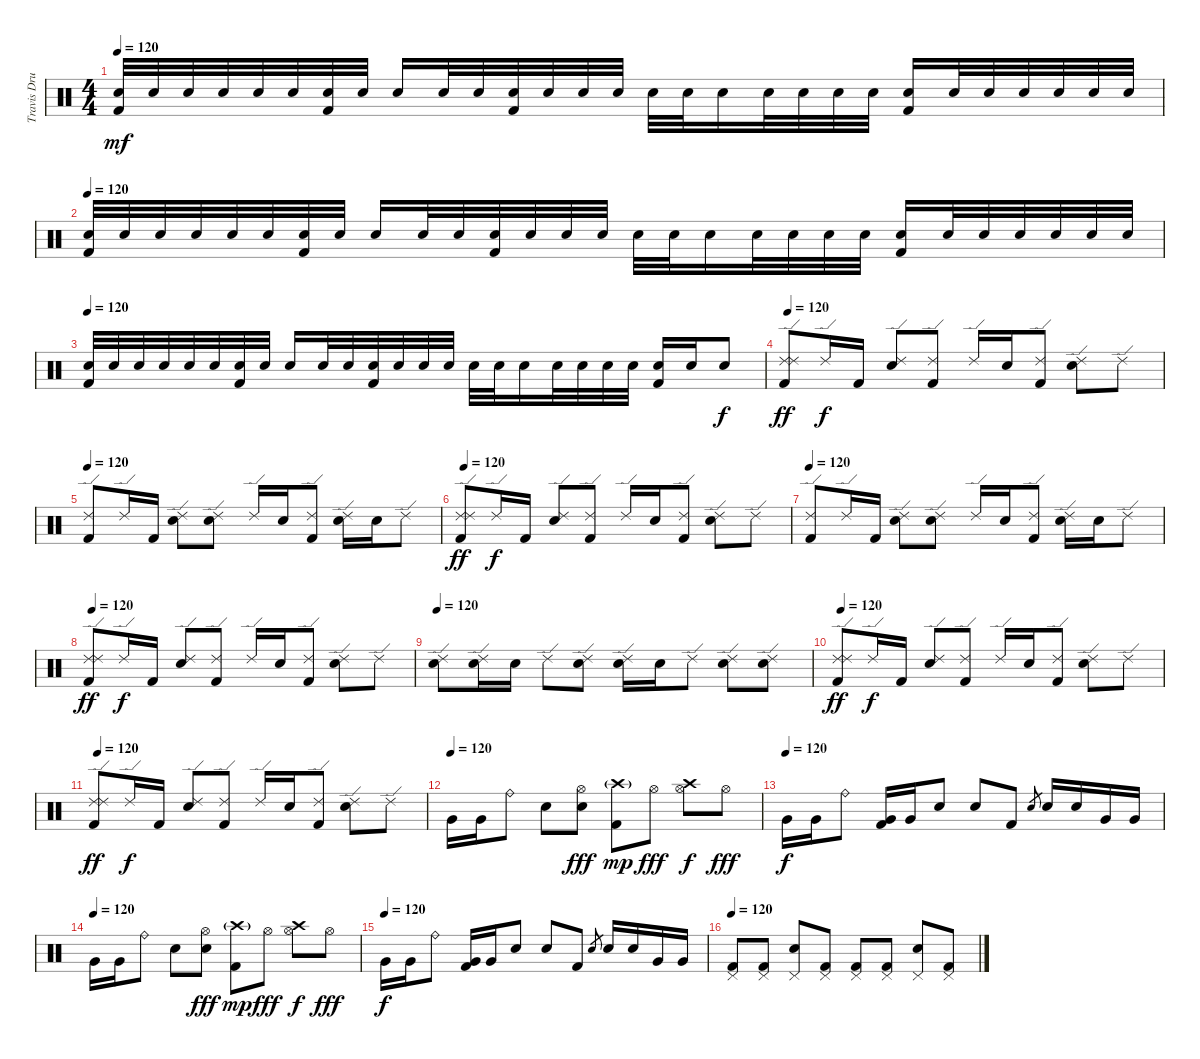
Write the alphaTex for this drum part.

\track ("Travis Drums" "Travis Dru") {instrument percussion}
\staff {score}
\articulation defaults
\ts (4 4)
\tempo 120
\clef neutral
\ks c
("Electric Snare (hit)" "Kick (hit) 2").32{dy mf} "Electric Snare (hit)".32 "Electric Snare (hit)".32 "Electric Snare (hit)".32 "Electric Snare (hit)".32 "Electric Snare (hit)".32 ("Electric Snare (hit)" "Kick (hit) 2").32 "Electric Snare (hit)".32 "Electric Snare (hit)".16 "Electric Snare (hit)".32 "Electric Snare (hit)".32 ("Electric Snare (hit)" "Kick (hit) 2").32 "Electric Snare (hit)".32 "Electric Snare (hit)".32 "Electric Snare (hit)".32 "Electric Snare (hit)".32 "Electric Snare (hit)".32 "Electric Snare (hit)".16 "Electric Snare (hit)".32 "Electric Snare (hit)".32 "Electric Snare (hit)".32 "Electric Snare (hit)".32 ("Electric Snare (hit)" "Kick (hit) 2").16 "Electric Snare (hit)".32 "Electric Snare (hit)".32 "Electric Snare (hit)".32 "Electric Snare (hit)".32 "Electric Snare (hit)".32 "Electric Snare (hit)".32 |
\tempo 120
("Electric Snare (hit)" "Kick (hit) 2").32 "Electric Snare (hit)".32 "Electric Snare (hit)".32 "Electric Snare (hit)".32 "Electric Snare (hit)".32 "Electric Snare (hit)".32 ("Electric Snare (hit)" "Kick (hit) 2").32 "Electric Snare (hit)".32 "Electric Snare (hit)".16 "Electric Snare (hit)".32 "Electric Snare (hit)".32 ("Electric Snare (hit)" "Kick (hit) 2").32 "Electric Snare (hit)".32 "Electric Snare (hit)".32 "Electric Snare (hit)".32 "Electric Snare (hit)".32 "Electric Snare (hit)".32 "Electric Snare (hit)".16 "Electric Snare (hit)".32 "Electric Snare (hit)".32 "Electric Snare (hit)".32 "Electric Snare (hit)".32 ("Electric Snare (hit)" "Kick (hit) 2").16 "Electric Snare (hit)".32 "Electric Snare (hit)".32 "Electric Snare (hit)".32 "Electric Snare (hit)".32 "Electric Snare (hit)".32 "Electric Snare (hit)".32 |
\tempo 120
("Electric Snare (hit)" "Kick (hit) 2").32 "Electric Snare (hit)".32 "Electric Snare (hit)".32 "Electric Snare (hit)".32 "Electric Snare (hit)".32 "Electric Snare (hit)".32 ("Electric Snare (hit)" "Kick (hit) 2").32 "Electric Snare (hit)".32 "Electric Snare (hit)".16 "Electric Snare (hit)".32 "Electric Snare (hit)".32 ("Electric Snare (hit)" "Kick (hit) 2").32 "Electric Snare (hit)".32 "Electric Snare (hit)".32 "Electric Snare (hit)".32 "Electric Snare (hit)".32 "Electric Snare (hit)".32 "Electric Snare (hit)".16 "Electric Snare (hit)".32 "Electric Snare (hit)".32 "Electric Snare (hit)".32 "Electric Snare (hit)".32 ("Electric Snare (hit)" "Kick (hit) 2").16 "Electric Snare (hit)".16 "Electric Snare (hit)".8{dy f} |
\tempo 120
("Ride (edge) 2" "Ride (edge) 2" "Kick (hit) 2").8{dy ff} "Ride (edge) 2".16{dy f} "Kick (hit) 2".16 ("Ride (edge) 2" "Electric Snare (hit)").8 ("Ride (edge) 2" "Kick (hit) 2").8 "Ride (edge) 2".16 "Electric Snare (hit)".16 ("Ride (edge) 2" "Kick (hit) 2").8 ("Ride (edge) 2" "Electric Snare (hit)").8 "Ride (edge) 2".8 |
\tempo 120
("Ride (edge) 2" "Kick (hit) 2").8 "Ride (edge) 2".16 "Kick (hit) 2".16 ("Ride (edge) 2" "Electric Snare (hit)").8 ("Ride (edge) 2" "Electric Snare (hit)").8 "Ride (edge) 2".16 "Electric Snare (hit)".16 ("Ride (edge) 2" "Kick (hit) 2").8 ("Ride (edge) 2" "Electric Snare (hit)").16 "Electric Snare (hit)".16 "Ride (edge) 2".8 |
\tempo 120
("Ride (edge) 2" "Ride (edge) 2" "Kick (hit) 2").8{dy ff} "Ride (edge) 2".16{dy f} "Kick (hit) 2".16 ("Ride (edge) 2" "Electric Snare (hit)").8 ("Ride (edge) 2" "Kick (hit) 2").8 "Ride (edge) 2".16 "Electric Snare (hit)".16 ("Ride (edge) 2" "Kick (hit) 2").8 ("Ride (edge) 2" "Electric Snare (hit)").8 "Ride (edge) 2".8 |
\tempo 120
("Ride (edge) 2" "Kick (hit) 2").8 "Ride (edge) 2".16 "Kick (hit) 2".16 ("Ride (edge) 2" "Electric Snare (hit)").8 ("Ride (edge) 2" "Electric Snare (hit)").8 "Ride (edge) 2".16 "Electric Snare (hit)".16 ("Ride (edge) 2" "Kick (hit) 2").8 ("Ride (edge) 2" "Electric Snare (hit)").16 "Electric Snare (hit)".16 "Ride (edge) 2".8 |
\tempo 120
("Ride (edge) 2" "Ride (edge) 2" "Kick (hit) 2").8{dy ff} "Ride (edge) 2".16{dy f} "Kick (hit) 2".16 ("Ride (edge) 2" "Electric Snare (hit)").8 ("Ride (edge) 2" "Kick (hit) 2").8 "Ride (edge) 2".16 "Electric Snare (hit)".16 ("Ride (edge) 2" "Kick (hit) 2").8 ("Ride (edge) 2" "Electric Snare (hit)").8 "Ride (edge) 2".8 |
\tempo 120
("Ride (edge) 2" "Electric Snare (hit)").8 ("Ride (edge) 2" "Electric Snare (hit)").16 "Electric Snare (hit)".16 "Ride (edge) 2".8 ("Ride (edge) 2" "Electric Snare (hit)").8 ("Ride (edge) 2" "Electric Snare (hit)").16 "Electric Snare (hit)".16 "Ride (edge) 2".8 ("Ride (edge) 2" "Electric Snare (hit)").8 ("Ride (edge) 2" "Electric Snare (hit)").8 |
\tempo 120
("Ride (edge) 2" "Ride (edge) 2" "Kick (hit) 2").8{dy ff} "Ride (edge) 2".16{dy f} "Kick (hit) 2".16 ("Ride (edge) 2" "Electric Snare (hit)").8 ("Ride (edge) 2" "Kick (hit) 2").8 "Ride (edge) 2".16 "Electric Snare (hit)".16 ("Ride (edge) 2" "Kick (hit) 2").8 ("Ride (edge) 2" "Electric Snare (hit)").8 "Ride (edge) 2".8 |
\tempo 120
("Ride (edge) 2" "Ride (edge) 2" "Kick (hit) 2").8{dy ff} "Ride (edge) 2".16{dy f} "Kick (hit) 2".16 ("Ride (edge) 2" "Electric Snare (hit)").8 ("Ride (edge) 2" "Kick (hit) 2").8 "Ride (edge) 2".16 "Electric Snare (hit)".16 ("Ride (edge) 2" "Kick (hit) 2").8 ("Ride (edge) 2" "Electric Snare (hit)").8 "Ride (edge) 2".8 |
\tempo (120)
"Very Low Tom (hit)".16 "Very Low Tom (hit)".16 "Ride (bell)".8 "Electric Snare (hit)".8 ("Hi-Hat (open)" "Electric Snare (hit)").8{dy fff} ("Crash high (hit)"{g} "Kick (hit) 2").8{dy mp} "Hi-Hat (open)".8{dy fff} ("Crash high (hit)" "Hi-Hat (open)").8{dy f} "Hi-Hat (open)".8{dy fff} |
\tempo (120)
"Very Low Tom (hit)".16{dy f} "Very Low Tom (hit)".16 "Ride (bell)".8 ("Very Low Tom (hit)" "Kick (hit) 2").16 "Very Low Tom (hit)".16 "Electric Snare (hit)".8 "Electric Snare (hit)".8 "Kick (hit) 2".8 "Electric Snare (hit)".8{gr} "Electric Snare (hit)".16 "Electric Snare (hit)".16 "Very Low Tom (hit)".16 "Very Low Tom (hit)".16 |
\tempo (120)
"Very Low Tom (hit)".16 "Very Low Tom (hit)".16 "Ride (bell)".8 "Electric Snare (hit)".8 ("Hi-Hat (open)" "Electric Snare (hit)").8{dy fff} ("Crash high (hit)"{g} "Kick (hit) 2").8{dy mp} "Hi-Hat (open)".8{dy fff} ("Crash high (hit)" "Hi-Hat (open)").8{dy f} "Hi-Hat (open)".8{dy fff} |
\tempo (120)
"Very Low Tom (hit)".16{dy f} "Very Low Tom (hit)".16 "Ride (bell)".8 ("Very Low Tom (hit)" "Kick (hit) 2").16 "Very Low Tom (hit)".16 "Electric Snare (hit)".8 "Electric Snare (hit)".8 "Kick (hit) 2".8 "Electric Snare (hit)".8{gr} "Electric Snare (hit)".16 "Electric Snare (hit)".16 "Very Low Tom (hit)".16 "Very Low Tom (hit)".16 |
\tempo 120
("Pedal Hi-Hat (hit)" "Kick (hit) 2").8 ("Pedal Hi-Hat (hit)" "Kick (hit) 2").8 ("Pedal Hi-Hat (hit)" "Electric Snare (hit)").8 ("Pedal Hi-Hat (hit)" "Kick (hit) 2").8 ("Pedal Hi-Hat (hit)" "Kick (hit) 2").8 ("Pedal Hi-Hat (hit)" "Kick (hit) 2").8 ("Pedal Hi-Hat (hit)" "Electric Snare (hit)").8 ("Pedal Hi-Hat (hit)" "Kick (hit) 2").8
